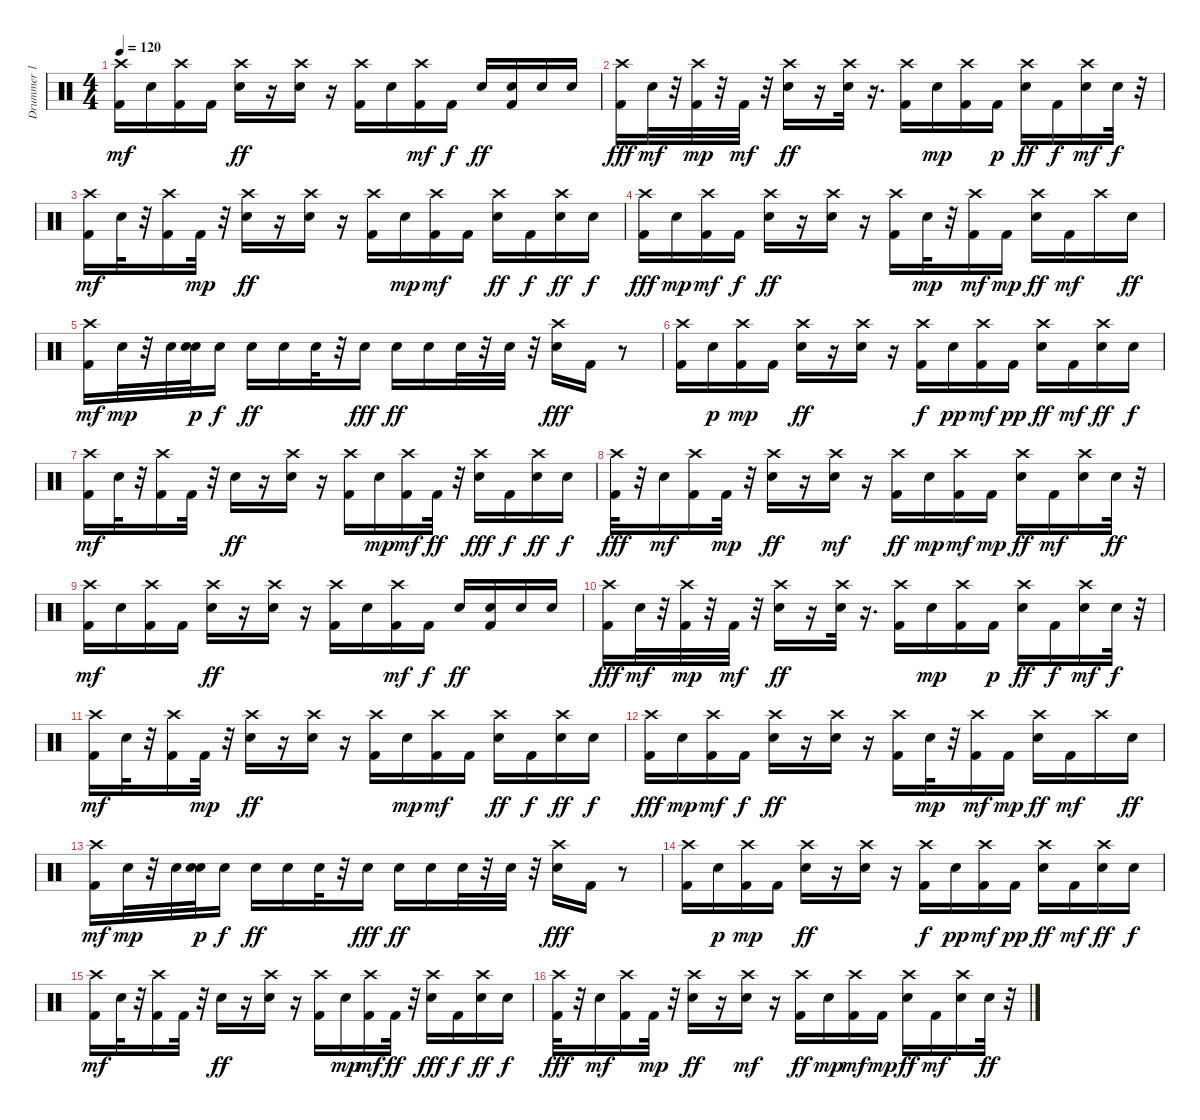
\track ("Drummer 1" "Drummer 1") {instrument percussion}
\staff {score}
\articulation defaults
\ts (4 4)
\tempo 120
\clef neutral
\ks c
("Kick (hit) 2" "Crash high (hit)").16{dy mf} "Electric Snare (hit)".16 ("Kick (hit) 2" "Crash high (hit)").16 "Kick (hit) 2".16 ("Electric Snare (hit)" "Crash high (hit)").16{dy ff} r.16 ("Electric Snare (hit)" "Crash high (hit)").16 r.16 ("Kick (hit) 2" "Crash high (hit)").16 "Electric Snare (hit)".16 ("Kick (hit) 2" "Crash high (hit)").16{dy mf} "Kick (hit) 2".16{dy f} "Electric Snare (hit)".16{dy ff} ("Kick (hit) 2" "Electric Snare (hit)").16 "Electric Snare (hit)".16 "Electric Snare (hit)".16 |
("Crash high (hit)" "Kick (hit) 2").16{dy fff} "Electric Snare (hit)".32{dy mf} r.32 ("Kick (hit) 2" "Crash high (hit)").32{dy mp} r.32 "Kick (hit) 2".32{dy mf} r.32 ("Electric Snare (hit)" "Crash high (hit)").16{dy ff} r.16 ("Electric Snare (hit)" "Crash high (hit)").32 r.16{d} ("Kick (hit) 2" "Crash high (hit)").16 "Electric Snare (hit)".16{dy mp} ("Kick (hit) 2" "Crash high (hit)").16 "Kick (hit) 2".16{dy p} ("Electric Snare (hit)" "Crash high (hit)").16{dy ff} "Kick (hit) 2".16{dy f} ("Electric Snare (hit)" "Crash high (hit)").16{dy mf} "Electric Snare (hit)".32{dy f} r.32 |
("Kick (hit) 2" "Crash high (hit)").16{dy mf} "Electric Snare (hit)".32 r.32 ("Kick (hit) 2" "Crash high (hit)").16 "Kick (hit) 2".32{dy mp} r.32 ("Electric Snare (hit)" "Crash high (hit)").16{dy ff} r.16 ("Electric Snare (hit)" "Crash high (hit)").16 r.16 ("Kick (hit) 2" "Crash high (hit)").16 "Electric Snare (hit)".16{dy mp} ("Kick (hit) 2" "Crash high (hit)").16{dy mf} "Kick (hit) 2".16 ("Electric Snare (hit)" "Crash high (hit)").16{dy ff} "Kick (hit) 2".16{dy f} ("Electric Snare (hit)" "Crash high (hit)").16{dy ff} "Electric Snare (hit)".16{dy f} |
("Crash high (hit)" "Kick (hit) 2").16{dy fff} "Electric Snare (hit)".16{dy mp} ("Kick (hit) 2" "Crash high (hit)").16{dy mf} "Kick (hit) 2".16{dy f} ("Electric Snare (hit)" "Crash high (hit)").16{dy ff} r.16 ("Electric Snare (hit)" "Crash high (hit)").16 r.16 ("Kick (hit) 2" "Crash high (hit)").16 "Electric Snare (hit)".32{dy mp} r.32 ("Kick (hit) 2" "Crash high (hit)").16{dy mf} "Kick (hit) 2".16{dy mp} ("Electric Snare (hit)" "Crash high (hit)").16{dy ff} "Kick (hit) 2".16{dy mf} "Crash high (hit)".16 "Electric Snare (hit)".16{dy ff} |
("Kick (hit) 2" "Crash high (hit)").16{dy mf} "Electric Snare (hit)".32{dy mp} r.32 "Electric Snare (hit)".32 ("Electric Snare (hit)" "Electric Snare (hit)").32{dy p} "Electric Snare (hit)".16{dy f} "Electric Snare (hit)".16{dy ff} "Electric Snare (hit)".16 "Electric Snare (hit)".32 r.32 "Electric Snare (hit)".16{dy fff} "Electric Snare (hit)".16{dy ff} "Electric Snare (hit)".16 "Electric Snare (hit)".32 r.32 "Electric Snare (hit)".32 r.32 ("Electric Snare (hit)" "Crash high (hit)").16{dy fff} "Kick (hit) 2".16 r.8 |
("Crash high (hit)" "Kick (hit) 2").16 "Electric Snare (hit)".16{dy p} ("Kick (hit) 2" "Crash high (hit)").16{dy mp} "Kick (hit) 2".16 ("Electric Snare (hit)" "Crash high (hit)").16{dy ff} r.16 ("Electric Snare (hit)" "Crash high (hit)").16 r.16 ("Kick (hit) 2" "Crash high (hit)").16{dy f} "Electric Snare (hit)".16{dy pp} ("Kick (hit) 2" "Crash high (hit)").16{dy mf} "Kick (hit) 2".16{dy pp} ("Electric Snare (hit)" "Crash high (hit)").16{dy ff} "Kick (hit) 2".16{dy mf} ("Electric Snare (hit)" "Crash high (hit)").16{dy ff} "Electric Snare (hit)".16{dy f} |
("Kick (hit) 2" "Crash high (hit)").16{dy mf} "Electric Snare (hit)".32 r.32 ("Kick (hit) 2" "Crash high (hit)").16 "Kick (hit) 2".32 r.32 "Electric Snare (hit)".16{dy ff} r.16 ("Electric Snare (hit)" "Crash high (hit)").16 r.16 ("Kick (hit) 2" "Crash high (hit)").16 "Electric Snare (hit)".16{dy mp} ("Kick (hit) 2" "Crash high (hit)").16{dy mf} "Kick (hit) 2".32{dy ff} r.32 ("Electric Snare (hit)" "Crash high (hit)").16{dy fff} "Kick (hit) 2".16{dy f} ("Electric Snare (hit)" "Crash high (hit)").16{dy ff} "Electric Snare (hit)".16{dy f} |
("Crash high (hit)" "Kick (hit) 2").32{dy fff} r.32 "Electric Snare (hit)".16{dy mf} ("Kick (hit) 2" "Crash high (hit)").16 "Kick (hit) 2".32{dy mp} r.32 ("Electric Snare (hit)" "Crash high (hit)").16{dy ff} r.16 ("Electric Snare (hit)" "Crash high (hit)").16{dy mf} r.16 ("Kick (hit) 2" "Crash high (hit)").16{dy ff} "Electric Snare (hit)".16{dy mp} ("Kick (hit) 2" "Crash high (hit)").16{dy mf} "Kick (hit) 2".16{dy mp} ("Electric Snare (hit)" "Crash high (hit)").16{dy ff} "Kick (hit) 2".16{dy mf} ("Electric Snare (hit)" "Crash high (hit)").16 "Electric Snare (hit)".32{dy ff} r.32 |
("Kick (hit) 2" "Crash high (hit)").16{dy mf} "Electric Snare (hit)".16 ("Kick (hit) 2" "Crash high (hit)").16 "Kick (hit) 2".16 ("Electric Snare (hit)" "Crash high (hit)").16{dy ff} r.16 ("Electric Snare (hit)" "Crash high (hit)").16 r.16 ("Kick (hit) 2" "Crash high (hit)").16 "Electric Snare (hit)".16 ("Kick (hit) 2" "Crash high (hit)").16{dy mf} "Kick (hit) 2".16{dy f} "Electric Snare (hit)".16{dy ff} ("Kick (hit) 2" "Electric Snare (hit)").16 "Electric Snare (hit)".16 "Electric Snare (hit)".16 |
("Crash high (hit)" "Kick (hit) 2").16{dy fff} "Electric Snare (hit)".32{dy mf} r.32 ("Kick (hit) 2" "Crash high (hit)").32{dy mp} r.32 "Kick (hit) 2".32{dy mf} r.32 ("Electric Snare (hit)" "Crash high (hit)").16{dy ff} r.16 ("Electric Snare (hit)" "Crash high (hit)").32 r.16{d} ("Kick (hit) 2" "Crash high (hit)").16 "Electric Snare (hit)".16{dy mp} ("Kick (hit) 2" "Crash high (hit)").16 "Kick (hit) 2".16{dy p} ("Electric Snare (hit)" "Crash high (hit)").16{dy ff} "Kick (hit) 2".16{dy f} ("Electric Snare (hit)" "Crash high (hit)").16{dy mf} "Electric Snare (hit)".32{dy f} r.32 |
("Kick (hit) 2" "Crash high (hit)").16{dy mf} "Electric Snare (hit)".32 r.32 ("Kick (hit) 2" "Crash high (hit)").16 "Kick (hit) 2".32{dy mp} r.32 ("Electric Snare (hit)" "Crash high (hit)").16{dy ff} r.16 ("Electric Snare (hit)" "Crash high (hit)").16 r.16 ("Kick (hit) 2" "Crash high (hit)").16 "Electric Snare (hit)".16{dy mp} ("Kick (hit) 2" "Crash high (hit)").16{dy mf} "Kick (hit) 2".16 ("Electric Snare (hit)" "Crash high (hit)").16{dy ff} "Kick (hit) 2".16{dy f} ("Electric Snare (hit)" "Crash high (hit)").16{dy ff} "Electric Snare (hit)".16{dy f} |
("Crash high (hit)" "Kick (hit) 2").16{dy fff} "Electric Snare (hit)".16{dy mp} ("Kick (hit) 2" "Crash high (hit)").16{dy mf} "Kick (hit) 2".16{dy f} ("Electric Snare (hit)" "Crash high (hit)").16{dy ff} r.16 ("Electric Snare (hit)" "Crash high (hit)").16 r.16 ("Kick (hit) 2" "Crash high (hit)").16 "Electric Snare (hit)".32{dy mp} r.32 ("Kick (hit) 2" "Crash high (hit)").16{dy mf} "Kick (hit) 2".16{dy mp} ("Electric Snare (hit)" "Crash high (hit)").16{dy ff} "Kick (hit) 2".16{dy mf} "Crash high (hit)".16 "Electric Snare (hit)".16{dy ff} |
("Kick (hit) 2" "Crash high (hit)").16{dy mf} "Electric Snare (hit)".32{dy mp} r.32 "Electric Snare (hit)".32 ("Electric Snare (hit)" "Electric Snare (hit)").32{dy p} "Electric Snare (hit)".16{dy f} "Electric Snare (hit)".16{dy ff} "Electric Snare (hit)".16 "Electric Snare (hit)".32 r.32 "Electric Snare (hit)".16{dy fff} "Electric Snare (hit)".16{dy ff} "Electric Snare (hit)".16 "Electric Snare (hit)".32 r.32 "Electric Snare (hit)".32 r.32 ("Electric Snare (hit)" "Crash high (hit)").16{dy fff} "Kick (hit) 2".16 r.8 |
("Crash high (hit)" "Kick (hit) 2").16 "Electric Snare (hit)".16{dy p} ("Kick (hit) 2" "Crash high (hit)").16{dy mp} "Kick (hit) 2".16 ("Electric Snare (hit)" "Crash high (hit)").16{dy ff} r.16 ("Electric Snare (hit)" "Crash high (hit)").16 r.16 ("Kick (hit) 2" "Crash high (hit)").16{dy f} "Electric Snare (hit)".16{dy pp} ("Kick (hit) 2" "Crash high (hit)").16{dy mf} "Kick (hit) 2".16{dy pp} ("Electric Snare (hit)" "Crash high (hit)").16{dy ff} "Kick (hit) 2".16{dy mf} ("Electric Snare (hit)" "Crash high (hit)").16{dy ff} "Electric Snare (hit)".16{dy f} |
("Kick (hit) 2" "Crash high (hit)").16{dy mf} "Electric Snare (hit)".32 r.32 ("Kick (hit) 2" "Crash high (hit)").16 "Kick (hit) 2".32 r.32 "Electric Snare (hit)".16{dy ff} r.16 ("Electric Snare (hit)" "Crash high (hit)").16 r.16 ("Kick (hit) 2" "Crash high (hit)").16 "Electric Snare (hit)".16{dy mp} ("Kick (hit) 2" "Crash high (hit)").16{dy mf} "Kick (hit) 2".32{dy ff} r.32 ("Electric Snare (hit)" "Crash high (hit)").16{dy fff} "Kick (hit) 2".16{dy f} ("Electric Snare (hit)" "Crash high (hit)").16{dy ff} "Electric Snare (hit)".16{dy f} |
("Crash high (hit)" "Kick (hit) 2").32{dy fff} r.32 "Electric Snare (hit)".16{dy mf} ("Kick (hit) 2" "Crash high (hit)").16 "Kick (hit) 2".32{dy mp} r.32 ("Electric Snare (hit)" "Crash high (hit)").16{dy ff} r.16 ("Electric Snare (hit)" "Crash high (hit)").16{dy mf} r.16 ("Kick (hit) 2" "Crash high (hit)").16{dy ff} "Electric Snare (hit)".16{dy mp} ("Kick (hit) 2" "Crash high (hit)").16{dy mf} "Kick (hit) 2".16{dy mp} ("Electric Snare (hit)" "Crash high (hit)").16{dy ff} "Kick (hit) 2".16{dy mf} ("Electric Snare (hit)" "Crash high (hit)").16 "Electric Snare (hit)".32{dy ff} r.32
